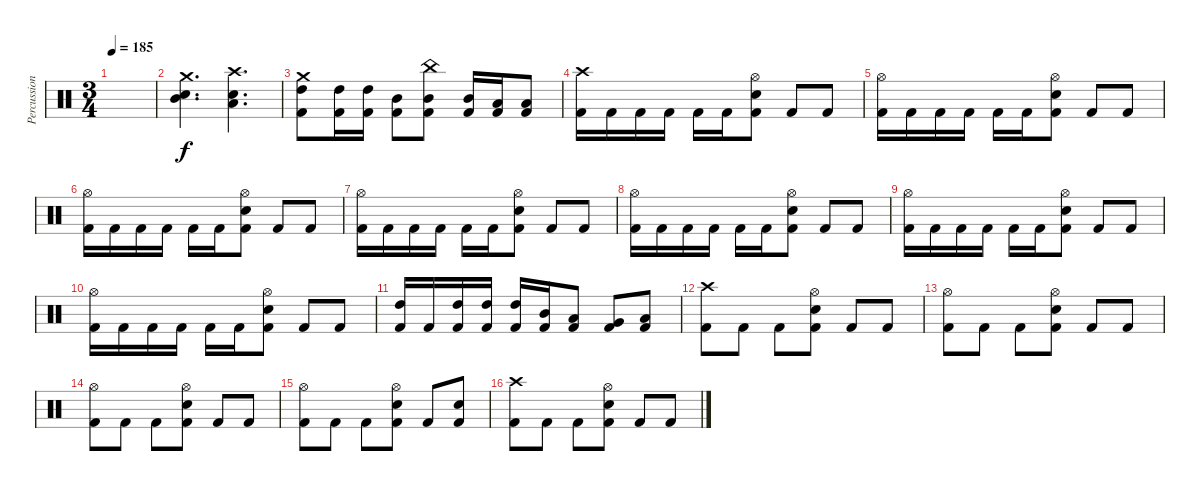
\track ("Percussion" "Percussion") {instrument percussion}
\staff {score}
\articulation defaults
\ts (3 4)
\tempo 185
\clef neutral
\ks c
|
("Crash medium (hit)" "Mid Tom (hit)" "Snare (hit) 2").4{d} ("Crash high (hit)" "Low Tom (hit)" "Snare (hit) 2").4{d} |
("Crash medium (hit)" "High Tom (hit)" "Kick (hit) 2").8 ("High Tom (hit)" "Kick (hit) 2").16 ("High Tom (hit)" "Kick (hit) 2").16 ("Mid Tom (hit)" "Kick (hit) 2").8 ("China (hit)" "Mid Tom (hit)" "Kick (hit) 2").8 ("Mid Tom (hit)" "Kick (hit) 2").16 ("Low Tom (hit)" "Kick (hit) 2").16 ("Low Tom (hit)" "Kick (hit) 2").8 |
("Crash high (hit)" "Kick (hit) 2").16 "Kick (hit) 2".16 "Kick (hit) 2".16 "Kick (hit) 2".16 "Kick (hit) 2".16 "Kick (hit) 2".16 ("Hi-Hat (open)" "Snare (hit) 2" "Kick (hit) 2").8 "Kick (hit) 2".8 "Kick (hit) 2".8 |
("Hi-Hat (open)" "Kick (hit) 2").16 "Kick (hit) 2".16 "Kick (hit) 2".16 "Kick (hit) 2".16 "Kick (hit) 2".16 "Kick (hit) 2".16 ("Hi-Hat (open)" "Snare (hit) 2" "Kick (hit) 2").8 "Kick (hit) 2".8 "Kick (hit) 2".8 |
("Hi-Hat (open)" "Kick (hit) 2").16 "Kick (hit) 2".16 "Kick (hit) 2".16 "Kick (hit) 2".16 "Kick (hit) 2".16 "Kick (hit) 2".16 ("Hi-Hat (open)" "Snare (hit) 2" "Kick (hit) 2").8 "Kick (hit) 2".8 "Kick (hit) 2".8 |
("Hi-Hat (open)" "Kick (hit) 2").16 "Kick (hit) 2".16 "Kick (hit) 2".16 "Kick (hit) 2".16 "Kick (hit) 2".16 "Kick (hit) 2".16 ("Hi-Hat (open)" "Snare (hit) 2" "Kick (hit) 2").8 "Kick (hit) 2".8 "Kick (hit) 2".8 |
("Hi-Hat (open)" "Kick (hit) 2").16 "Kick (hit) 2".16 "Kick (hit) 2".16 "Kick (hit) 2".16 "Kick (hit) 2".16 "Kick (hit) 2".16 ("Hi-Hat (open)" "Snare (hit) 2" "Kick (hit) 2").8 "Kick (hit) 2".8 "Kick (hit) 2".8 |
("Hi-Hat (open)" "Kick (hit) 2").16 "Kick (hit) 2".16 "Kick (hit) 2".16 "Kick (hit) 2".16 "Kick (hit) 2".16 "Kick (hit) 2".16 ("Hi-Hat (open)" "Snare (hit) 2" "Kick (hit) 2").8 "Kick (hit) 2".8 "Kick (hit) 2".8 |
("Hi-Hat (open)" "Kick (hit) 2").16 "Kick (hit) 2".16 "Kick (hit) 2".16 "Kick (hit) 2".16 "Kick (hit) 2".16 "Kick (hit) 2".16 ("Hi-Hat (open)" "Snare (hit) 2" "Kick (hit) 2").8 "Kick (hit) 2".8 "Kick (hit) 2".8 |
("High Tom (hit)" "Kick (hit) 2").16 "Kick (hit) 2".16 ("High Tom (hit)" "Kick (hit) 2").16 ("High Tom (hit)" "Kick (hit) 2").16 ("High Tom (hit)" "Kick (hit) 2").16 ("Mid Tom (hit)" "Kick (hit) 2").16 ("Low Tom (hit)" "Kick (hit) 2").8 ("Very Low Tom (hit)" "Kick (hit) 2").8 ("Low Floor Tom (hit)" "Kick (hit) 2").8 |
("Crash high (hit)" "Kick (hit) 2").8 "Kick (hit) 2".8 "Kick (hit) 2".8 ("Hi-Hat (open)" "Snare (hit) 2" "Kick (hit) 2").8 "Kick (hit) 2".8 "Kick (hit) 2".8 |
("Hi-Hat (open)" "Kick (hit) 2").8 "Kick (hit) 2".8 "Kick (hit) 2".8 ("Hi-Hat (open)" "Snare (hit) 2" "Kick (hit) 2").8 "Kick (hit) 2".8 "Kick (hit) 2".8 |
("Hi-Hat (open)" "Kick (hit) 2").8 "Kick (hit) 2".8 "Kick (hit) 2".8 ("Hi-Hat (open)" "Snare (hit) 2" "Kick (hit) 2").8 "Kick (hit) 2".8 "Kick (hit) 2".8 |
("Hi-Hat (open)" "Kick (hit) 2").8 "Kick (hit) 2".8 "Kick (hit) 2".8 ("Hi-Hat (open)" "Snare (hit) 2" "Kick (hit) 2").8 "Kick (hit) 2".8 ("Snare (hit) 2" "Kick (hit) 2").8 |
("Crash high (hit)" "Kick (hit) 2").8 "Kick (hit) 2".8 "Kick (hit) 2".8 ("Hi-Hat (open)" "Snare (hit) 2" "Kick (hit) 2").8 "Kick (hit) 2".8 "Kick (hit) 2".8
